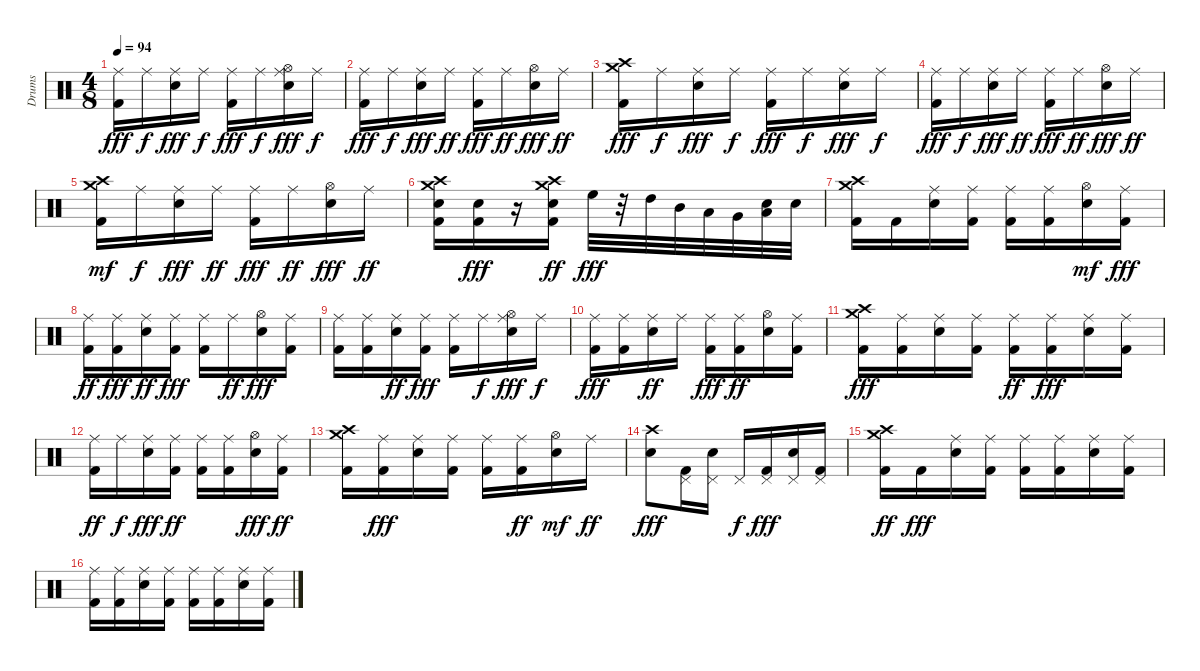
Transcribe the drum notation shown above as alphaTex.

\track ("Drums" "Drums") {instrument percussion}
\staff {score}
\articulation defaults
\ts (4 8)
\tempo 94
\clef neutral
\ks c
("Ride (middle)" "Kick (hit) 2").16{dy fff} "Ride (middle)".16{dy f} ("Ride (middle)" "Electric Snare (hit)").16{dy fff} "Ride (middle)".16{dy f} ("Ride (middle)" "Kick (hit) 2").16{dy fff} "Ride (middle)".16{dy f} ("Hi-Hat (open)" "Ride (middle)" "Electric Snare (hit)").16{dy fff} "Ride (middle)".16{dy f} |
("Ride (middle)" "Kick (hit) 2").16{dy fff} "Ride (middle)".16{dy f} ("Ride (middle)" "Electric Snare (hit)").16{dy fff} "Ride (middle)".16{dy ff} ("Ride (middle)" "Kick (hit) 2").16{dy fff} "Ride (middle)".16{dy ff} ("Hi-Hat (open)" "Electric Snare (hit)").16{dy fff} "Ride (middle)".16{dy ff} |
("Crash medium (hit)" "Crash high (hit)" "Kick (hit) 2").16{dy fff} "Ride (middle)".16{dy f} ("Ride (middle)" "Electric Snare (hit)").16{dy fff} "Ride (middle)".16{dy f} ("Ride (middle)" "Kick (hit) 2").16{dy fff} "Ride (middle)".16{dy f} ("Ride (middle)" "Electric Snare (hit)").16{dy fff} "Ride (middle)".16{dy f} |
("Ride (middle)" "Kick (hit) 2").16{dy fff} "Ride (middle)".16{dy f} ("Ride (middle)" "Electric Snare (hit)").16{dy fff} "Ride (middle)".16{dy ff} ("Ride (middle)" "Kick (hit) 2").16{dy fff} "Ride (middle)".16{dy ff} ("Hi-Hat (open)" "Electric Snare (hit)").16{dy fff} "Ride (middle)".16{dy ff} |
("Crash high (hit)" "Kick (hit) 2" "Crash medium (hit)").16{dy mf} "Ride (middle)".16{dy f} ("Ride (middle)" "Electric Snare (hit)").16{dy fff} "Ride (middle)".16{dy ff} ("Ride (middle)" "Kick (hit) 2").16{dy fff} "Ride (middle)".16{dy ff} ("Hi-Hat (open)" "Electric Snare (hit)").16{dy fff} "Ride (middle)".16{dy ff} |
("Electric Snare (hit)" "Kick (hit) 2" "Crash medium (hit)" "Crash high (hit)").16 ("Electric Snare (hit)" "Kick (hit) 2").16{dy fff} r.16 ("Electric Snare (hit)" "Kick (hit) 2" "Crash high (hit)" "Crash medium (hit)").16{dy ff} "High Floor Tom (hit)".32{dy fff} r.32 "High Tom (hit)".32 "Mid Tom (hit)".32 "Low Tom (hit)".32 "Very Low Tom (hit)".32 ("Electric Snare (hit)" "Low Floor Tom (hit)").32 "Electric Snare (hit)".32 |
("Crash medium (hit)" "Crash high (hit)" "Kick (hit) 2").16 "Kick (hit) 2".16 ("Ride (middle)" "Electric Snare (hit)").16 ("Ride (middle)" "Kick (hit) 2").16 ("Ride (middle)" "Kick (hit) 2").16 ("Kick (hit) 2" "Ride (middle)").16 ("Electric Snare (hit)" "Hi-Hat (open)").16{dy mf} ("Kick (hit) 2" "Ride (middle)").16{dy fff} |
("Kick (hit) 2" "Ride (middle)").16{dy ff} ("Kick (hit) 2" "Ride (middle)").16{dy fff} ("Electric Snare (hit)" "Ride (middle)").16{dy ff} ("Ride (middle)" "Kick (hit) 2").16{dy fff} ("Ride (middle)" "Kick (hit) 2").16 "Ride (middle)".16{dy ff} ("Hi-Hat (open)" "Electric Snare (hit)").16{dy fff} ("Ride (middle)" "Kick (hit) 2").16 |
("Ride (middle)" "Kick (hit) 2").16 ("Kick (hit) 2" "Ride (middle)").16 ("Electric Snare (hit)" "Ride (middle)").16{dy ff} ("Kick (hit) 2" "Ride (middle)").16{dy fff} ("Ride (middle)" "Kick (hit) 2").16 "Ride (middle)".16{dy f} ("Ride (middle)" "Electric Snare (hit)" "Hi-Hat (open)").16{dy fff} "Ride (middle)".16{dy f} |
("Ride (middle)" "Kick (hit) 2").16{dy fff} ("Kick (hit) 2" "Ride (middle)").16 ("Electric Snare (hit)" "Ride (middle)").16{dy ff} "Ride (middle)".16 ("Ride (middle)" "Kick (hit) 2").16{dy fff} ("Kick (hit) 2" "Ride (middle)").16{dy ff} ("Electric Snare (hit)" "Hi-Hat (open)").16 ("Kick (hit) 2" "Ride (middle)").16 |
("Crash medium (hit)" "Crash high (hit)" "Kick (hit) 2").16{dy fff} ("Ride (middle)" "Kick (hit) 2").16 ("Ride (middle)" "Electric Snare (hit)").16 ("Ride (middle)" "Kick (hit) 2").16 ("Kick (hit) 2" "Ride (middle)").16{dy ff} ("Kick (hit) 2" "Ride (middle)").16{dy fff} ("Ride (middle)" "Electric Snare (hit)").16 ("Ride (middle)" "Kick (hit) 2").16 |
("Kick (hit) 2" "Ride (middle)").16{dy ff} "Ride (middle)".16{dy f} ("Ride (middle)" "Electric Snare (hit)").16{dy fff} ("Kick (hit) 2" "Ride (middle)").16{dy ff} ("Kick (hit) 2" "Ride (middle)").16 ("Kick (hit) 2" "Ride (middle)").16 ("Hi-Hat (open)" "Electric Snare (hit)").16{dy fff} ("Kick (hit) 2" "Ride (middle)").16{dy ff} |
("Kick (hit) 2" "Crash medium (hit)" "Crash high (hit)").16 ("Kick (hit) 2" "Ride (middle)").16{dy fff} ("Ride (middle)" "Electric Snare (hit)").16 ("Ride (middle)" "Kick (hit) 2").16 ("Ride (middle)" "Kick (hit) 2").16 ("Kick (hit) 2" "Ride (middle)").16{dy ff} ("Electric Snare (hit)" "Hi-Hat (open)").16{dy mf} "Ride (middle)".16{dy ff} |
("Crash high (hit)" "Electric Snare (hit)").8{dy fff} ("Pedal Hi-Hat (hit)" "Kick (hit) 2").16 ("Pedal Hi-Hat (hit)" "Electric Snare (hit)").16 "Pedal Hi-Hat (hit)".16{dy f} ("Pedal Hi-Hat (hit)" "Kick (hit) 2").16{dy fff} ("Pedal Hi-Hat (hit)" "Electric Snare (hit)").16 ("Pedal Hi-Hat (hit)" "Kick (hit) 2").16 |
("Crash medium (hit)" "Kick (hit) 2" "Crash high (hit)").16{dy ff} "Kick (hit) 2".16{dy fff} ("Ride (middle)" "Electric Snare (hit)").16 ("Ride (middle)" "Kick (hit) 2").16 ("Ride (middle)" "Kick (hit) 2").16 ("Ride (middle)" "Kick (hit) 2").16 ("Ride (middle)" "Electric Snare (hit)").16 ("Ride (middle)" "Kick (hit) 2").16 |
("Ride (middle)" "Kick (hit) 2").16 ("Ride (middle)" "Kick (hit) 2").16 ("Ride (middle)" "Electric Snare (hit)").16 ("Ride (middle)" "Kick (hit) 2").16 ("Kick (hit) 2" "Ride (middle)").16 ("Ride (middle)" "Kick (hit) 2").16 ("Ride (middle)" "Electric Snare (hit)").16 ("Ride (middle)" "Kick (hit) 2").16
